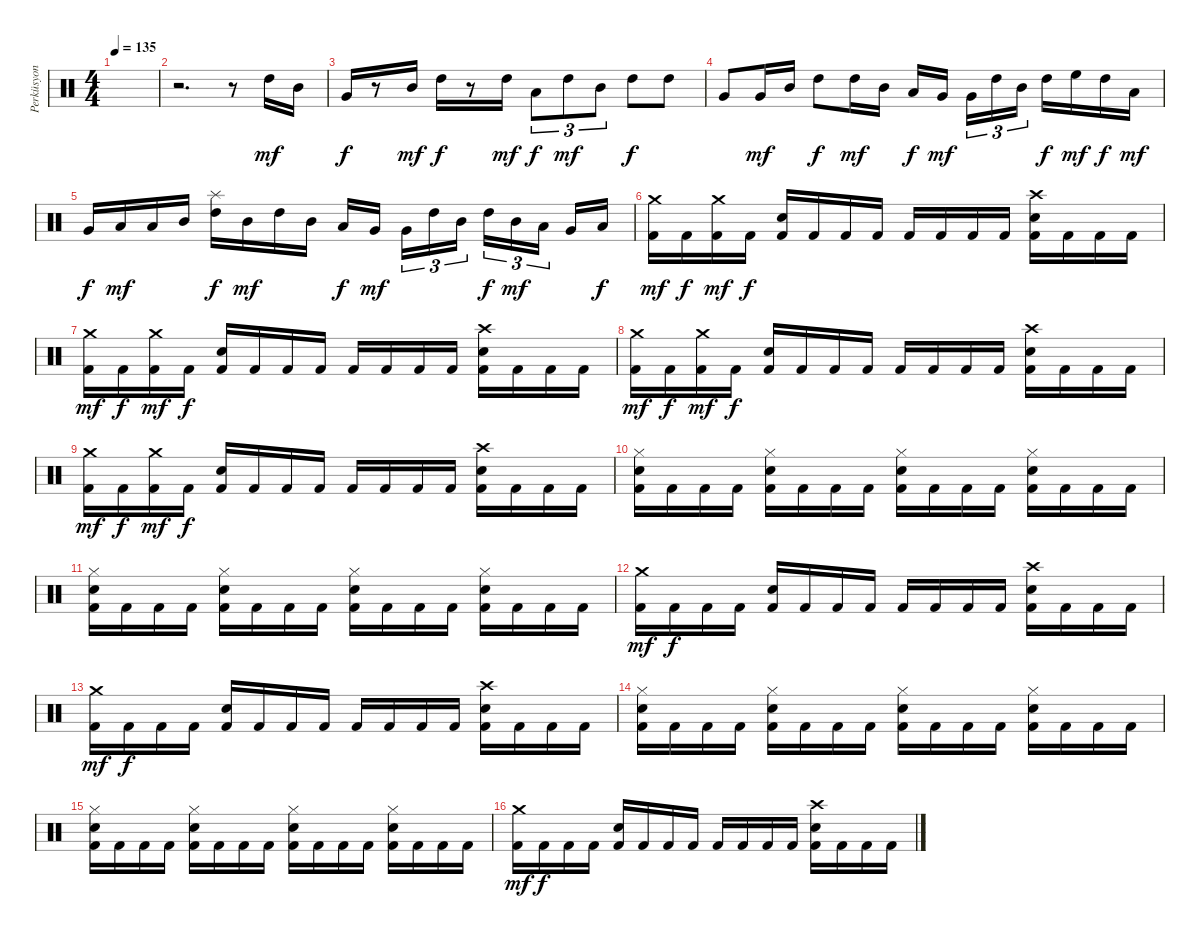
\track ("Perküsyon" "Perküsyon") {instrument percussion}
\staff {score}
\articulation defaults
\ts (4 4)
\tempo 135
\clef neutral
\ks c
|
r.2{d} r.8 "High Tom (hit)".16{dy mf} "Mid Tom (hit)".16 |
"Very Low Tom (hit)".16{dy f} r.8 "Mid Tom (hit)".16{dy mf} "High Tom (hit)".16{dy f} r.8 "High Tom (hit)".16{dy mf} "Low Tom (hit)".8{tu (3 2) dy f} "High Tom (hit)".8{tu (3 2) dy mf} "Mid Tom (hit)".8{tu (3 2)} "High Tom (hit)".8{dy f} "High Tom (hit)".8 |
"Very Low Tom (hit)".8 "Very Low Tom (hit)".16{dy mf} "Mid Tom (hit)".16 "High Tom (hit)".8{dy f} "High Tom (hit)".16{dy mf} "Mid Tom (hit)".16 "Low Tom (hit)".16{dy f} "Very Low Tom (hit)".16{dy mf} "Very Low Tom (hit)".16{tu (3 2)} "High Tom (hit)".16{tu (3 2)} "Mid Tom (hit)".16{tu (3 2)} "High Tom (hit)".16{dy f} "High Floor Tom (hit)".16{dy mf} "High Tom (hit)".16{dy f} "Low Tom (hit)".16{dy mf} |
"Very Low Tom (hit)".16{dy f} "Low Floor Tom (hit)".16{dy mf} "Low Tom (hit)".16 "Mid Tom (hit)".16 ("High Tom (hit)" "Splash (hit)").16{dy f} "Mid Tom (hit)".16{dy mf} "High Tom (hit)".16 "Mid Tom (hit)".16 "Low Tom (hit)".16{dy f} "Very Low Tom (hit)".16{dy mf} "Very Low Tom (hit)".16{tu (3 2)} "High Tom (hit)".16{tu (3 2)} "Mid Tom (hit)".16{tu (3 2)} "High Tom (hit)".16{tu (3 2) dy f} "Mid Tom (hit)".16{tu (3 2) dy mf} "Low Tom (hit)".16{tu (3 2)} "Very Low Tom (hit)".16 "Low Floor Tom (hit)".16{dy f} |
("Kick (hit) 2" "Crash medium (hit)").16{dy mf} "Kick (hit) 2".16{dy f} ("Kick (hit) 2" "Crash medium (hit)").16{dy mf} "Kick (hit) 2".16{dy f} ("Kick (hit) 2" "Snare (hit) 2").16 "Kick (hit) 2".16 "Kick (hit) 2".16 "Kick (hit) 2".16 "Kick (hit) 2".16 "Kick (hit) 2".16 "Kick (hit) 2".16 "Kick (hit) 2".16 ("Kick (hit) 2" "Snare (hit) 2" "Crash high (hit)").16 "Kick (hit) 2".16 "Kick (hit) 2".16 "Kick (hit) 2".16 |
("Kick (hit) 2" "Crash medium (hit)").16{dy mf} "Kick (hit) 2".16{dy f} ("Kick (hit) 2" "Crash medium (hit)").16{dy mf} "Kick (hit) 2".16{dy f} ("Kick (hit) 2" "Snare (hit) 2").16 "Kick (hit) 2".16 "Kick (hit) 2".16 "Kick (hit) 2".16 "Kick (hit) 2".16 "Kick (hit) 2".16 "Kick (hit) 2".16 "Kick (hit) 2".16 ("Kick (hit) 2" "Snare (hit) 2" "Crash high (hit)").16 "Kick (hit) 2".16 "Kick (hit) 2".16 "Kick (hit) 2".16 |
("Kick (hit) 2" "Crash medium (hit)").16{dy mf} "Kick (hit) 2".16{dy f} ("Kick (hit) 2" "Crash medium (hit)").16{dy mf} "Kick (hit) 2".16{dy f} ("Kick (hit) 2" "Snare (hit) 2").16 "Kick (hit) 2".16 "Kick (hit) 2".16 "Kick (hit) 2".16 "Kick (hit) 2".16 "Kick (hit) 2".16 "Kick (hit) 2".16 "Kick (hit) 2".16 ("Kick (hit) 2" "Snare (hit) 2" "Crash high (hit)").16 "Kick (hit) 2".16 "Kick (hit) 2".16 "Kick (hit) 2".16 |
("Kick (hit) 2" "Crash medium (hit)").16{dy mf} "Kick (hit) 2".16{dy f} ("Kick (hit) 2" "Crash medium (hit)").16{dy mf} "Kick (hit) 2".16{dy f} ("Kick (hit) 2" "Snare (hit) 2").16 "Kick (hit) 2".16 "Kick (hit) 2".16 "Kick (hit) 2".16 "Kick (hit) 2".16 "Kick (hit) 2".16 "Kick (hit) 2".16 "Kick (hit) 2".16 ("Kick (hit) 2" "Snare (hit) 2" "Crash high (hit)").16 "Kick (hit) 2".16 "Kick (hit) 2".16 "Kick (hit) 2".16 |
("Kick (hit) 2" "Snare (hit) 2" "Hi-Hat (closed)").16 "Kick (hit) 2".16 "Kick (hit) 2".16 "Kick (hit) 2".16 ("Kick (hit) 2" "Snare (hit) 2" "Hi-Hat (closed)").16 "Kick (hit) 2".16 "Kick (hit) 2".16 "Kick (hit) 2".16 ("Kick (hit) 2" "Snare (hit) 2" "Hi-Hat (closed)").16 "Kick (hit) 2".16 "Kick (hit) 2".16 "Kick (hit) 2".16 ("Kick (hit) 2" "Snare (hit) 2" "Hi-Hat (closed)").16 "Kick (hit) 2".16 "Kick (hit) 2".16 "Kick (hit) 2".16 |
("Kick (hit) 2" "Snare (hit) 2" "Hi-Hat (closed)").16 "Kick (hit) 2".16 "Kick (hit) 2".16 "Kick (hit) 2".16 ("Kick (hit) 2" "Snare (hit) 2" "Hi-Hat (closed)").16 "Kick (hit) 2".16 "Kick (hit) 2".16 "Kick (hit) 2".16 ("Kick (hit) 2" "Snare (hit) 2" "Hi-Hat (closed)").16 "Kick (hit) 2".16 "Kick (hit) 2".16 "Kick (hit) 2".16 ("Kick (hit) 2" "Snare (hit) 2" "Hi-Hat (closed)").16 "Kick (hit) 2".16 "Kick (hit) 2".16 "Kick (hit) 2".16 |
("Kick (hit) 2" "Crash medium (hit)").16{dy mf} "Kick (hit) 2".16{dy f} "Kick (hit) 2".16 "Kick (hit) 2".16 ("Kick (hit) 2" "Snare (hit) 2").16 "Kick (hit) 2".16 "Kick (hit) 2".16 "Kick (hit) 2".16 "Kick (hit) 2".16 "Kick (hit) 2".16 "Kick (hit) 2".16 "Kick (hit) 2".16 ("Kick (hit) 2" "Snare (hit) 2" "Crash high (hit)").16 "Kick (hit) 2".16 "Kick (hit) 2".16 "Kick (hit) 2".16 |
("Kick (hit) 2" "Crash medium (hit)").16{dy mf} "Kick (hit) 2".16{dy f} "Kick (hit) 2".16 "Kick (hit) 2".16 ("Kick (hit) 2" "Snare (hit) 2").16 "Kick (hit) 2".16 "Kick (hit) 2".16 "Kick (hit) 2".16 "Kick (hit) 2".16 "Kick (hit) 2".16 "Kick (hit) 2".16 "Kick (hit) 2".16 ("Kick (hit) 2" "Snare (hit) 2" "Crash high (hit)").16 "Kick (hit) 2".16 "Kick (hit) 2".16 "Kick (hit) 2".16 |
("Kick (hit) 2" "Snare (hit) 2" "Hi-Hat (closed)").16 "Kick (hit) 2".16 "Kick (hit) 2".16 "Kick (hit) 2".16 ("Kick (hit) 2" "Snare (hit) 2" "Hi-Hat (closed)").16 "Kick (hit) 2".16 "Kick (hit) 2".16 "Kick (hit) 2".16 ("Kick (hit) 2" "Snare (hit) 2" "Hi-Hat (closed)").16 "Kick (hit) 2".16 "Kick (hit) 2".16 "Kick (hit) 2".16 ("Kick (hit) 2" "Snare (hit) 2" "Hi-Hat (closed)").16 "Kick (hit) 2".16 "Kick (hit) 2".16 "Kick (hit) 2".16 |
("Kick (hit) 2" "Snare (hit) 2" "Hi-Hat (closed)").16 "Kick (hit) 2".16 "Kick (hit) 2".16 "Kick (hit) 2".16 ("Kick (hit) 2" "Snare (hit) 2" "Hi-Hat (closed)").16 "Kick (hit) 2".16 "Kick (hit) 2".16 "Kick (hit) 2".16 ("Kick (hit) 2" "Snare (hit) 2" "Hi-Hat (closed)").16 "Kick (hit) 2".16 "Kick (hit) 2".16 "Kick (hit) 2".16 ("Kick (hit) 2" "Snare (hit) 2" "Hi-Hat (closed)").16 "Kick (hit) 2".16 "Kick (hit) 2".16 "Kick (hit) 2".16 |
("Kick (hit) 2" "Crash medium (hit)").16{dy mf} "Kick (hit) 2".16{dy f} "Kick (hit) 2".16 "Kick (hit) 2".16 ("Kick (hit) 2" "Snare (hit) 2").16 "Kick (hit) 2".16 "Kick (hit) 2".16 "Kick (hit) 2".16 "Kick (hit) 2".16 "Kick (hit) 2".16 "Kick (hit) 2".16 "Kick (hit) 2".16 ("Kick (hit) 2" "Snare (hit) 2" "Crash high (hit)").16 "Kick (hit) 2".16 "Kick (hit) 2".16 "Kick (hit) 2".16
